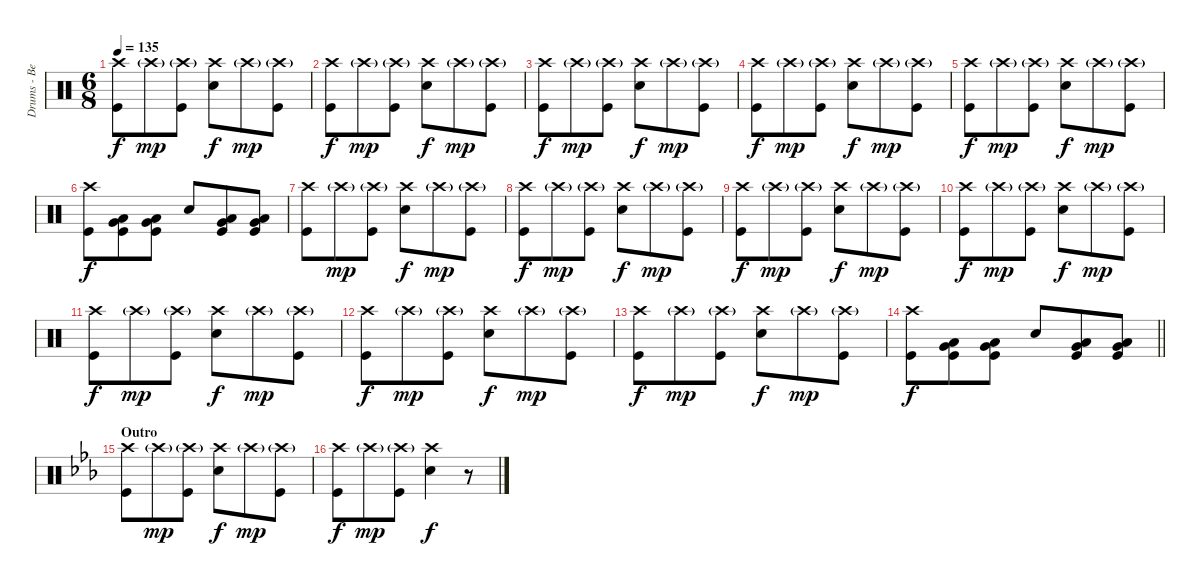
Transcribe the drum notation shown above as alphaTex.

\track ("Drums - Ben Johnston" "Drums - Be") {instrument percussion}
\staff {score}
\articulation defaults
\ts (6 8)
\tempo 135
\clef neutral
\ks c
("Crash high (hit)" "Kick (hit)").8{dy f} "Crash high (hit)"{g}.8{dy mp} ("Crash high (hit)"{g} "Kick (hit)").8 ("Crash high (hit)" "Snare (hit) 2").8{dy f} "Crash high (hit)"{g}.8{dy mp} ("Crash high (hit)"{g} "Kick (hit)").8 |
("Crash high (hit)" "Kick (hit)").8{dy f} "Crash high (hit)"{g}.8{dy mp} ("Crash high (hit)"{g} "Kick (hit)").8 ("Crash high (hit)" "Snare (hit) 2").8{dy f} "Crash high (hit)"{g}.8{dy mp} ("Crash high (hit)"{g} "Kick (hit)").8 |
("Crash high (hit)" "Kick (hit)").8{dy f} "Crash high (hit)"{g}.8{dy mp} ("Crash high (hit)"{g} "Kick (hit)").8 ("Crash high (hit)" "Snare (hit) 2").8{dy f} "Crash high (hit)"{g}.8{dy mp} ("Crash high (hit)"{g} "Kick (hit)").8 |
("Crash high (hit)" "Kick (hit)").8{dy f} "Crash high (hit)"{g}.8{dy mp} ("Crash high (hit)"{g} "Kick (hit)").8 ("Crash high (hit)" "Snare (hit) 2").8{dy f} "Crash high (hit)"{g}.8{dy mp} ("Crash high (hit)"{g} "Kick (hit)").8 |
("Crash high (hit)" "Kick (hit)").8{dy f} "Crash high (hit)"{g}.8{dy mp} ("Crash high (hit)"{g} "Kick (hit)").8 ("Crash high (hit)" "Snare (hit) 2").8{dy f} "Crash high (hit)"{g}.8{dy mp} ("Crash high (hit)"{g} "Kick (hit)").8 |
("Crash high (hit)" "Kick (hit)").8{dy f} ("Low Floor Tom (hit)" "Very Low Tom (hit)" "Kick (hit)").8 ("Low Floor Tom (hit)" "Very Low Tom (hit)" "Kick (hit)").8 "Snare (hit) 2".8 ("Low Floor Tom (hit)" "Very Low Tom (hit)" "Kick (hit)").8 ("Low Floor Tom (hit)" "Very Low Tom (hit)" "Kick (hit)").8 |
("Crash high (hit)" "Kick (hit)").8 "Crash high (hit)"{g}.8{dy mp} ("Crash high (hit)"{g} "Kick (hit)").8 ("Crash high (hit)" "Snare (hit) 2").8{dy f} "Crash high (hit)"{g}.8{dy mp} ("Crash high (hit)"{g} "Kick (hit)").8 |
("Crash high (hit)" "Kick (hit)").8{dy f} "Crash high (hit)"{g}.8{dy mp} ("Crash high (hit)"{g} "Kick (hit)").8 ("Crash high (hit)" "Snare (hit) 2").8{dy f} "Crash high (hit)"{g}.8{dy mp} ("Crash high (hit)"{g} "Kick (hit)").8 |
("Crash high (hit)" "Kick (hit)").8{dy f} "Crash high (hit)"{g}.8{dy mp} ("Crash high (hit)"{g} "Kick (hit)").8 ("Crash high (hit)" "Snare (hit) 2").8{dy f} "Crash high (hit)"{g}.8{dy mp} ("Crash high (hit)"{g} "Kick (hit)").8 |
("Crash high (hit)" "Kick (hit)").8{dy f} "Crash high (hit)"{g}.8{dy mp} ("Crash high (hit)"{g} "Kick (hit)").8 ("Crash high (hit)" "Snare (hit) 2").8{dy f} "Crash high (hit)"{g}.8{dy mp} ("Crash high (hit)"{g} "Kick (hit)").8 |
("Crash high (hit)" "Kick (hit)").8{dy f} "Crash high (hit)"{g}.8{dy mp} ("Crash high (hit)"{g} "Kick (hit)").8 ("Crash high (hit)" "Snare (hit) 2").8{dy f} "Crash high (hit)"{g}.8{dy mp} ("Crash high (hit)"{g} "Kick (hit)").8 |
("Crash high (hit)" "Kick (hit)").8{dy f} "Crash high (hit)"{g}.8{dy mp} ("Crash high (hit)"{g} "Kick (hit)").8 ("Crash high (hit)" "Snare (hit) 2").8{dy f} "Crash high (hit)"{g}.8{dy mp} ("Crash high (hit)"{g} "Kick (hit)").8 |
("Crash high (hit)" "Kick (hit)").8{dy f} "Crash high (hit)"{g}.8{dy mp} ("Crash high (hit)"{g} "Kick (hit)").8 ("Crash high (hit)" "Snare (hit) 2").8{dy f} "Crash high (hit)"{g}.8{dy mp} ("Crash high (hit)"{g} "Kick (hit)").8 |
\barLineRight lightlight
("Crash high (hit)" "Kick (hit)").8{dy f} ("Low Floor Tom (hit)" "Very Low Tom (hit)" "Kick (hit)").8 ("Low Floor Tom (hit)" "Very Low Tom (hit)" "Kick (hit)").8 "Snare (hit) 2".8 ("Low Floor Tom (hit)" "Very Low Tom (hit)" "Kick (hit)").8 ("Low Floor Tom (hit)" "Very Low Tom (hit)" "Kick (hit)").8 |
\section ("" "Outro")
\ks cminor
("Crash high (hit)" "Kick (hit)").8 "Crash high (hit)"{g}.8{dy mp} ("Crash high (hit)"{g} "Kick (hit)").8 ("Crash high (hit)" "Snare (hit) 2").8{dy f} "Crash high (hit)"{g}.8{dy mp} ("Crash high (hit)"{g} "Kick (hit)").8 |
("Crash high (hit)" "Kick (hit)").8{dy f} "Crash high (hit)"{g}.8{dy mp} ("Crash high (hit)"{g} "Kick (hit)").8 ("Crash high (hit)" "Snare (hit) 2").4{dy f} r.8
